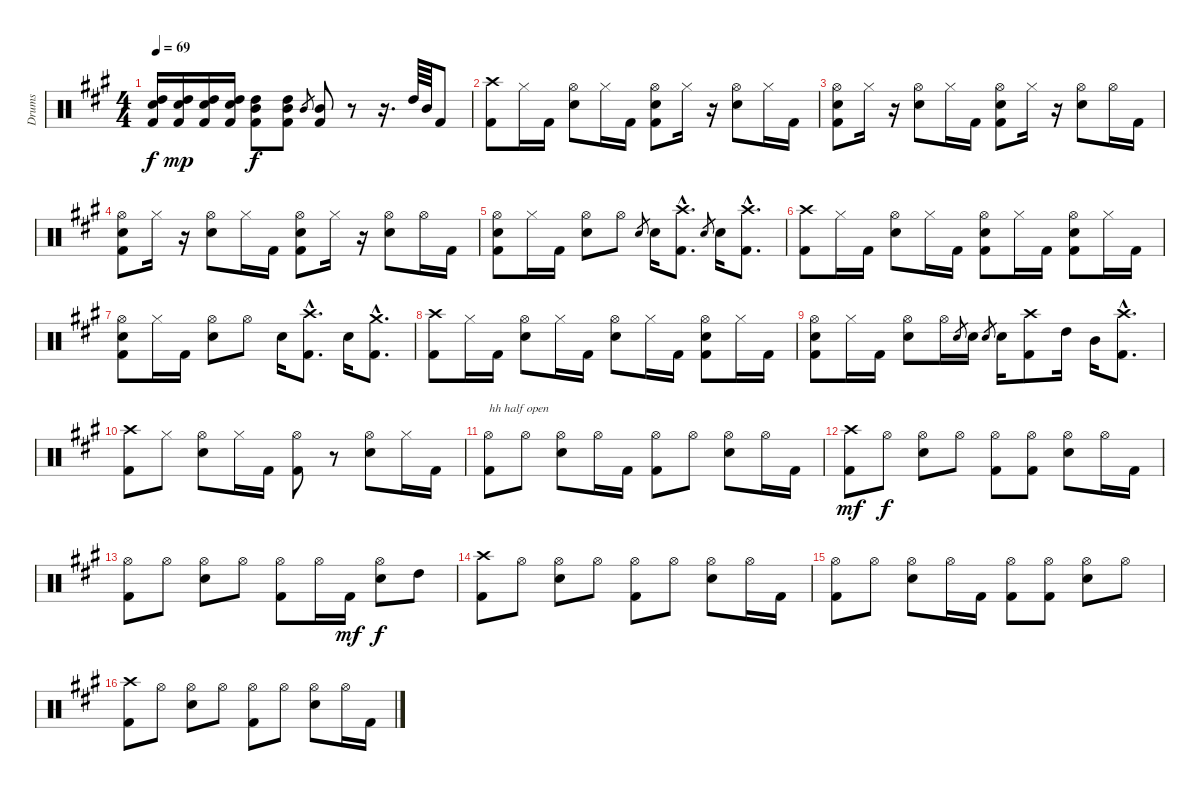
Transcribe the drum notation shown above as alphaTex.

\track ("Drums" "Drums") {instrument percussion}
\staff {score}
\articulation defaults
\ts (4 4)
\tempo 69
\clef neutral
\ks f#minor
("High Tom (hit)" "Snare (hit) 2" "Kick (hit) 2").16{dy f} ("High Tom (hit)" "Snare (hit) 2" "Kick (hit) 2").16{dy mp} ("High Tom (hit)" "Snare (hit) 2" "Kick (hit) 2").16 ("High Tom (hit)" "Snare (hit) 2" "Kick (hit) 2").16 ("High Tom (hit)" "Mid Tom (hit)" "Kick (hit) 2").8{dy f} ("High Tom (hit)" "Mid Tom (hit)" "Kick (hit) 2").8 "Mid Tom (hit)".8{gr} ("Mid Tom (hit)" "Kick (hit) 2").8 r.8 r.16{d} "High Tom (hit)".64 "Mid Tom (hit)".64 "Kick (hit) 2".8 |
("Crash high (hit)" "Kick (hit) 2").8 "Hi-Hat (closed)".16 "Kick (hit) 2".16 ("Hi-Hat (open)" "Snare (hit) 2").8 "Hi-Hat (closed)".16 "Kick (hit) 2".16 ("Hi-Hat (open)" "Snare (hit) 2" "Kick (hit) 2").8 "Hi-Hat (closed)".16 r.16 ("Hi-Hat (open)" "Snare (hit) 2").8 "Hi-Hat (closed)".16 "Kick (hit) 2".16 |
("Hi-Hat (open)" "Snare (hit) 2" "Kick (hit) 2").8 "Hi-Hat (closed)".16 r.16 ("Hi-Hat (open)" "Snare (hit) 2").8 "Hi-Hat (closed)".16 "Kick (hit) 2".16 ("Hi-Hat (open)" "Snare (hit) 2" "Kick (hit) 2").8 "Hi-Hat (closed)".16 r.16 ("Hi-Hat (open)" "Snare (hit) 2").8 "Hi-Hat (open)".16 "Kick (hit) 2".16 |
("Hi-Hat (open)" "Snare (hit) 2" "Kick (hit) 2").8 "Hi-Hat (closed)".16 r.16 ("Hi-Hat (open)" "Snare (hit) 2").8 "Hi-Hat (closed)".16 "Kick (hit) 2".16 ("Hi-Hat (open)" "Snare (hit) 2" "Kick (hit) 2").8 "Hi-Hat (closed)".16 r.16 ("Hi-Hat (open)" "Snare (hit) 2").8 "Hi-Hat (open)".16 "Kick (hit) 2".16 |
("Hi-Hat (open)" "Snare (hit) 2" "Kick (hit) 2").8 "Hi-Hat (closed)".16 "Kick (hit) 2".16 ("Hi-Hat (open)" "Snare (hit) 2").8 "Hi-Hat (open)".8 "Snare (hit) 2".8{gr} "Snare (hit) 2".16 ("Crash high (hit)"{hac} "Kick (hit) 2"{hac}).8{d} "Snare (hit) 2".8{gr} "Snare (hit) 2".16 ("Crash high (hit)"{hac} "Kick (hit) 2"{hac}).8{d} |
("Crash high (hit)" "Kick (hit) 2").8 "Hi-Hat (closed)".16 "Kick (hit) 2".16 ("Hi-Hat (open)" "Snare (hit) 2").8 "Hi-Hat (closed)".16 "Kick (hit) 2".16 ("Hi-Hat (open)" "Snare (hit) 2" "Kick (hit) 2").8 "Hi-Hat (closed)".16 "Kick (hit) 2".16 ("Hi-Hat (open)" "Snare (hit) 2" "Kick (hit) 2").8 "Hi-Hat (closed)".16 "Kick (hit) 2".16 |
("Hi-Hat (open)" "Snare (hit) 2" "Kick (hit) 2").8 "Hi-Hat (closed)".16 "Kick (hit) 2".16 ("Hi-Hat (open)" "Snare (hit) 2").8 "Hi-Hat (open)".8 "Snare (hit) 2".16 ("Crash high (hit)"{hac} "Kick (hit) 2"{hac}).8{d} "Snare (hit) 2".16 ("Crash medium (hit)"{hac} "Kick (hit) 2"{hac}).8{d} |
("Crash high (hit)" "Kick (hit) 2").8 "Hi-Hat (closed)".16 "Kick (hit) 2".16 ("Hi-Hat (open)" "Snare (hit) 2").8 "Hi-Hat (closed)".16 "Kick (hit) 2".16 ("Hi-Hat (open)" "Snare (hit) 2").8 "Hi-Hat (closed)".16 "Kick (hit) 2".16 ("Hi-Hat (open)" "Snare (hit) 2" "Kick (hit) 2").8 "Hi-Hat (closed)".16 "Kick (hit) 2".16 |
("Hi-Hat (open)" "Snare (hit) 2" "Kick (hit) 2").8 "Hi-Hat (closed)".16 "Kick (hit) 2".16 ("Hi-Hat (open)" "Snare (hit) 2").8 "Hi-Hat (open)".16 "Snare (hit) 2".8{gr} "Snare (hit) 2".16 "Snare (hit) 2".8{gr} "Snare (hit) 2".16 ("Crash high (hit)" "Kick (hit) 2").8 "High Tom (hit)".16 "Mid Tom (hit)".16 ("Crash high (hit)"{hac} "Kick (hit) 2"{hac}).8{d} |
("Crash high (hit)" "Kick (hit) 2").8 "Hi-Hat (closed)".8 ("Hi-Hat (open)" "Snare (hit) 2").8 "Hi-Hat (closed)".16 "Kick (hit) 2".16 ("Hi-Hat (open)" "Kick (hit) 2").8 r.8 ("Hi-Hat (open)" "Snare (hit) 2").8 "Hi-Hat (closed)".16 "Kick (hit) 2".16 |
("Hi-Hat (open)" "Kick (hit) 2").8{txt "hh half open"} "Hi-Hat (open)".8 ("Hi-Hat (open)" "Snare (hit) 2").8 "Hi-Hat (open)".16 "Kick (hit) 2".16 ("Hi-Hat (open)" "Kick (hit) 2").8 "Hi-Hat (open)".8 ("Hi-Hat (open)" "Snare (hit) 2").8 "Hi-Hat (open)".16 "Kick (hit) 2".16 |
("Crash high (hit)" "Kick (hit) 2").8{dy mf} "Hi-Hat (open)".8{dy f} ("Hi-Hat (open)" "Snare (hit) 2").8 "Hi-Hat (open)".8 ("Hi-Hat (open)" "Kick (hit) 2").8 ("Hi-Hat (open)" "Kick (hit) 2").8 ("Hi-Hat (open)" "Snare (hit) 2").8 "Hi-Hat (open)".16 "Kick (hit) 2".16 |
("Hi-Hat (open)" "Kick (hit) 2").8 "Hi-Hat (open)".8 ("Hi-Hat (open)" "Snare (hit) 2").8 "Hi-Hat (open)".8 ("Hi-Hat (open)" "Kick (hit) 2").8 "Hi-Hat (open)".16 "Kick (hit) 2".16{dy mf} ("Hi-Hat (open)" "Snare (hit) 2").8{dy f} "High Tom (hit)".8 |
("Crash high (hit)" "Kick (hit) 2").8 "Hi-Hat (open)".8 ("Hi-Hat (open)" "Snare (hit) 2").8 "Hi-Hat (open)".8 ("Hi-Hat (open)" "Kick (hit) 2").8 "Hi-Hat (open)".8 ("Hi-Hat (open)" "Snare (hit) 2").8 "Hi-Hat (open)".16 "Kick (hit) 2".16 |
("Hi-Hat (open)" "Kick (hit) 2").8 "Hi-Hat (open)".8 ("Hi-Hat (open)" "Snare (hit) 2").8 "Hi-Hat (open)".16 "Kick (hit) 2".16 ("Hi-Hat (open)" "Kick (hit) 2").8 ("Hi-Hat (open)" "Kick (hit) 2").8 ("Hi-Hat (open)" "Snare (hit) 2").8 "Hi-Hat (open)".8 |
("Crash high (hit)" "Kick (hit) 2").8 "Hi-Hat (open)".8 ("Hi-Hat (open)" "Snare (hit) 2").8 "Hi-Hat (open)".8 ("Hi-Hat (open)" "Kick (hit) 2").8 "Hi-Hat (open)".8 ("Hi-Hat (open)" "Snare (hit) 2").8 "Hi-Hat (open)".16 "Kick (hit) 2".16
